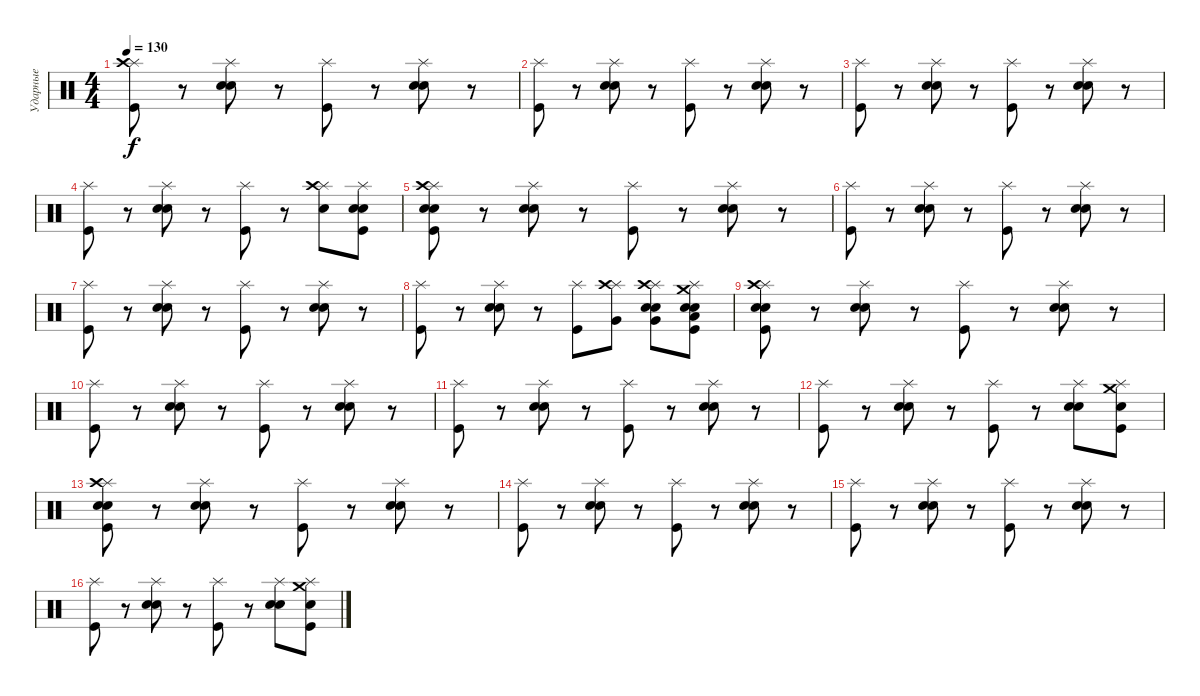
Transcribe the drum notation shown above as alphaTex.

\track ("Ударные" "Ударные") {instrument percussion}
\staff {score}
\articulation defaults
\ts (4 4)
\tempo 130
\clef neutral
\ks c
("Splash (hit)" "Crash high (hit)" "Kick (hit)").8{dy f} r.8 ("Splash (hit)" "Electric Snare (hit)" "Electric Snare (hit)").8 r.8 ("Splash (hit)" "Kick (hit)").8 r.8 ("Splash (hit)" "Electric Snare (hit)" "Electric Snare (hit)").8 r.8 |
("Splash (hit)" "Kick (hit)").8 r.8 ("Splash (hit)" "Electric Snare (hit)" "Electric Snare (hit)").8 r.8 ("Splash (hit)" "Kick (hit)").8 r.8 ("Splash (hit)" "Electric Snare (hit)" "Electric Snare (hit)").8 r.8 |
("Splash (hit)" "Kick (hit)").8 r.8 ("Splash (hit)" "Electric Snare (hit)" "Electric Snare (hit)").8 r.8 ("Splash (hit)" "Kick (hit)").8 r.8 ("Splash (hit)" "Electric Snare (hit)" "Electric Snare (hit)").8 r.8 |
("Splash (hit)" "Kick (hit)").8 r.8 ("Splash (hit)" "Electric Snare (hit)" "Electric Snare (hit)").8 r.8 ("Splash (hit)" "Kick (hit)").8 r.8 ("Splash (hit)" "Crash high (hit)" "Electric Snare (hit)").8 ("Splash (hit)" "Electric Snare (hit)" "Electric Snare (hit)" "Kick (hit)").8 |
("Splash (hit)" "Crash high (hit)" "Electric Snare (hit)" "Electric Snare (hit)" "Kick (hit)").8 r.8 ("Splash (hit)" "Electric Snare (hit)" "Electric Snare (hit)").8 r.8 ("Splash (hit)" "Kick (hit)").8 r.8 ("Splash (hit)" "Electric Snare (hit)" "Electric Snare (hit)").8 r.8 |
("Splash (hit)" "Kick (hit)").8 r.8 ("Splash (hit)" "Electric Snare (hit)" "Electric Snare (hit)").8 r.8 ("Splash (hit)" "Kick (hit)").8 r.8 ("Splash (hit)" "Electric Snare (hit)" "Electric Snare (hit)").8 r.8 |
("Splash (hit)" "Kick (hit)").8 r.8 ("Splash (hit)" "Electric Snare (hit)" "Electric Snare (hit)").8 r.8 ("Splash (hit)" "Kick (hit)").8 r.8 ("Splash (hit)" "Electric Snare (hit)" "Electric Snare (hit)").8 r.8 |
("Splash (hit)" "Kick (hit)").8 r.8 ("Splash (hit)" "Electric Snare (hit)" "Electric Snare (hit)").8 r.8 ("Splash (hit)" "Kick (hit)").8 ("Splash (hit)" "Crash high (hit)" "Very Low Tom (hit)").8 ("Splash (hit)" "Crash high (hit)" "Electric Snare (hit)" "Electric Snare (hit)" "Very Low Tom (hit)").8 ("Splash (hit)" "Crash medium (hit)" "Electric Snare (hit)" "Electric Snare (hit)" "Low Floor Tom (hit)" "Kick (hit)").8 |
("Splash (hit)" "Crash high (hit)" "Electric Snare (hit)" "Electric Snare (hit)" "Kick (hit)").8 r.8 ("Splash (hit)" "Electric Snare (hit)" "Electric Snare (hit)").8 r.8 ("Splash (hit)" "Kick (hit)").8 r.8 ("Splash (hit)" "Electric Snare (hit)" "Electric Snare (hit)").8 r.8 |
("Splash (hit)" "Kick (hit)").8 r.8 ("Splash (hit)" "Electric Snare (hit)" "Electric Snare (hit)").8 r.8 ("Splash (hit)" "Kick (hit)").8 r.8 ("Splash (hit)" "Electric Snare (hit)" "Electric Snare (hit)").8 r.8 |
("Splash (hit)" "Kick (hit)").8 r.8 ("Splash (hit)" "Electric Snare (hit)" "Electric Snare (hit)").8 r.8 ("Splash (hit)" "Kick (hit)").8 r.8 ("Splash (hit)" "Electric Snare (hit)" "Electric Snare (hit)").8 r.8 |
("Splash (hit)" "Kick (hit)").8 r.8 ("Splash (hit)" "Electric Snare (hit)" "Electric Snare (hit)").8 r.8 ("Splash (hit)" "Kick (hit)").8 r.8 ("Splash (hit)" "Electric Snare (hit)" "Electric Snare (hit)").8 ("Splash (hit)" "Crash medium (hit)" "Electric Snare (hit)" "Kick (hit)").8 |
("Splash (hit)" "Crash high (hit)" "Electric Snare (hit)" "Electric Snare (hit)" "Kick (hit)").8 r.8 ("Splash (hit)" "Electric Snare (hit)" "Electric Snare (hit)").8 r.8 ("Splash (hit)" "Kick (hit)").8 r.8 ("Splash (hit)" "Electric Snare (hit)" "Electric Snare (hit)").8 r.8 |
("Splash (hit)" "Kick (hit)").8 r.8 ("Splash (hit)" "Electric Snare (hit)" "Electric Snare (hit)").8 r.8 ("Splash (hit)" "Kick (hit)").8 r.8 ("Splash (hit)" "Electric Snare (hit)" "Electric Snare (hit)").8 r.8 |
("Splash (hit)" "Kick (hit)").8 r.8 ("Splash (hit)" "Electric Snare (hit)" "Electric Snare (hit)").8 r.8 ("Splash (hit)" "Kick (hit)").8 r.8 ("Splash (hit)" "Electric Snare (hit)" "Electric Snare (hit)").8 r.8 |
("Splash (hit)" "Kick (hit)").8 r.8 ("Splash (hit)" "Electric Snare (hit)" "Electric Snare (hit)").8 r.8 ("Splash (hit)" "Kick (hit)").8 r.8 ("Splash (hit)" "Electric Snare (hit)" "Electric Snare (hit)").8 ("Splash (hit)" "Crash medium (hit)" "Electric Snare (hit)" "Kick (hit)").8
